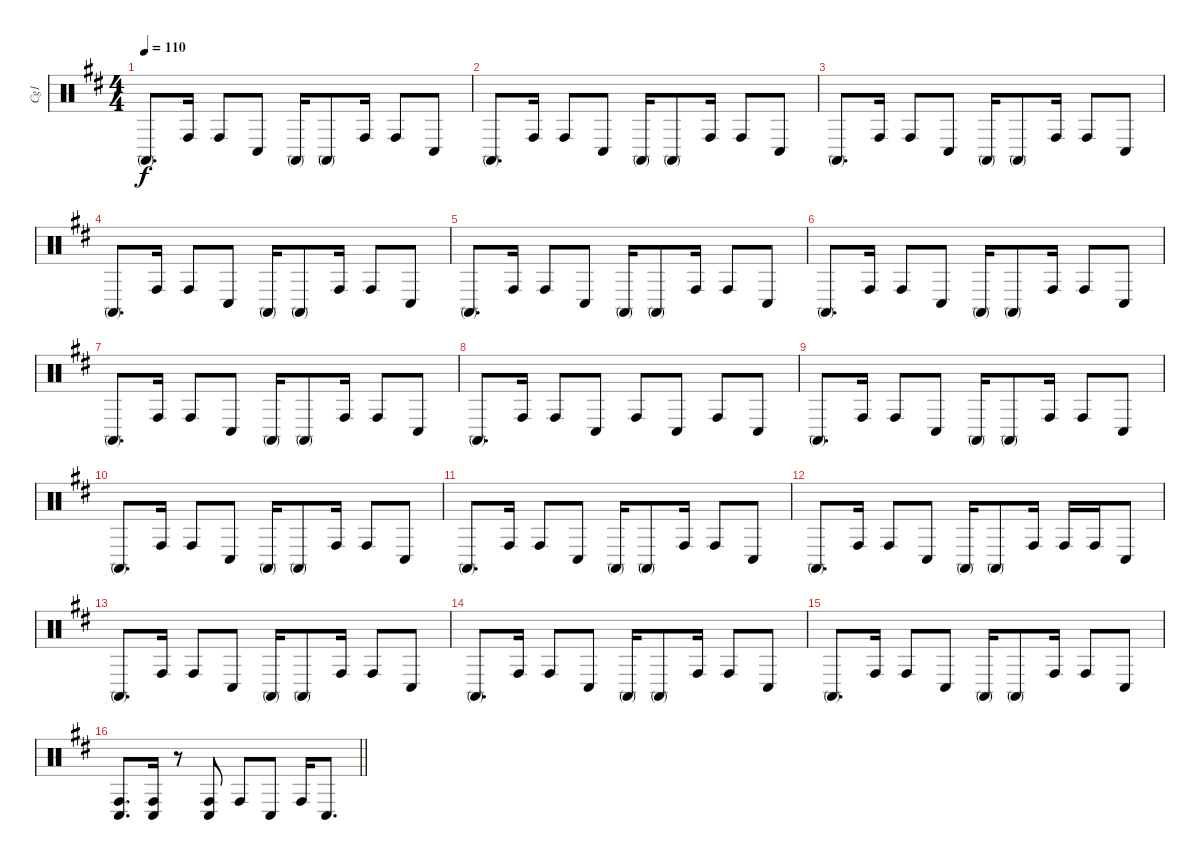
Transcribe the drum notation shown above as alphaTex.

\track ("Cg1" "Cg1") {instrument percussion}
\staff {score}
\articulation defaults
\ts (4 4)
\tempo 110
\clef neutral
\ks d "Conga high (mute)".8{d dy f} "Conga high (hit)".16 "Conga high (hit)".8 "Conga low (hit)".8 "Conga high (mute)".16 "Conga high (mute)".8 "Conga high (hit)".16 "Conga high (hit)".8 "Conga low (hit)".8
|
"Conga high (mute)".8{d} "Conga high (hit)".16 "Conga high (hit)".8 "Conga low (hit)".8 "Conga high (mute)".16 "Conga high (mute)".8 "Conga high (hit)".16 "Conga high (hit)".8 "Conga low (hit)".8 |
"Conga high (mute)".8{d} "Conga high (hit)".16 "Conga high (hit)".8 "Conga low (hit)".8 "Conga high (mute)".16 "Conga high (mute)".8 "Conga high (hit)".16 "Conga high (hit)".8 "Conga low (hit)".8 |
"Conga high (mute)".8{d} "Conga high (hit)".16 "Conga high (hit)".8 "Conga low (hit)".8 "Conga high (mute)".16 "Conga high (mute)".8 "Conga high (hit)".16 "Conga high (hit)".8 "Conga low (hit)".8 |
"Conga high (mute)".8{d} "Conga high (hit)".16 "Conga high (hit)".8 "Conga low (hit)".8 "Conga high (mute)".16 "Conga high (mute)".8 "Conga high (hit)".16 "Conga high (hit)".8 "Conga low (hit)".8 |
"Conga high (mute)".8{d} "Conga high (hit)".16 "Conga high (hit)".8 "Conga low (hit)".8 "Conga high (mute)".16 "Conga high (mute)".8 "Conga high (hit)".16 "Conga high (hit)".8 "Conga low (hit)".8 |
"Conga high (mute)".8{d} "Conga high (hit)".16 "Conga high (hit)".8 "Conga low (hit)".8 "Conga high (mute)".16 "Conga high (mute)".8 "Conga high (hit)".16 "Conga high (hit)".8 "Conga low (hit)".8 |
"Conga high (mute)".8{d} "Conga high (hit)".16 "Conga high (hit)".8 "Conga low (hit)".8 "Conga high (hit)".8 "Conga low (hit)".8 "Conga high (hit)".8 "Conga low (hit)".8 |
"Conga high (mute)".8{d} "Conga high (hit)".16 "Conga high (hit)".8 "Conga low (hit)".8 "Conga high (mute)".16 "Conga high (mute)".8 "Conga high (hit)".16 "Conga high (hit)".8 "Conga low (hit)".8 |
"Conga high (mute)".8{d} "Conga high (hit)".16 "Conga high (hit)".8 "Conga low (hit)".8 "Conga high (mute)".16 "Conga high (mute)".8 "Conga high (hit)".16 "Conga high (hit)".8 "Conga low (hit)".8 |
"Conga high (mute)".8{d} "Conga high (hit)".16 "Conga high (hit)".8 "Conga low (hit)".8 "Conga high (mute)".16 "Conga high (mute)".8 "Conga high (hit)".16 "Conga high (hit)".8 "Conga low (hit)".8 |
"Conga high (mute)".8{d} "Conga high (hit)".16 "Conga high (hit)".8 "Conga low (hit)".8 "Conga high (mute)".16 "Conga high (mute)".8 "Conga high (hit)".16 "Conga high (hit)".16 "Conga high (hit)".16 "Conga low (hit)".8 |
"Conga high (mute)".8{d} "Conga high (hit)".16 "Conga high (hit)".8 "Conga low (hit)".8 "Conga high (mute)".16 "Conga high (mute)".8 "Conga high (hit)".16 "Conga high (hit)".8 "Conga low (hit)".8 |
"Conga high (mute)".8{d} "Conga high (hit)".16 "Conga high (hit)".8 "Conga low (hit)".8 "Conga high (mute)".16 "Conga high (mute)".8 "Conga high (hit)".16 "Conga high (hit)".8 "Conga low (hit)".8 |
"Conga high (mute)".8{d} "Conga high (hit)".16 "Conga high (hit)".8 "Conga low (hit)".8 "Conga high (mute)".16 "Conga high (mute)".8 "Conga high (hit)".16 "Conga high (hit)".8 "Conga low (hit)".8 |
\barLineRight lightlight
("Conga high (hit)" "Conga low (hit)").8{d} ("Conga high (hit)" "Conga low (hit)").16 r.8 ("Conga high (hit)" "Conga low (hit)").8 "Conga high (hit)".8 "Conga low (hit)".8 "Conga high (hit)".16 "Conga low (hit)".8{d}
